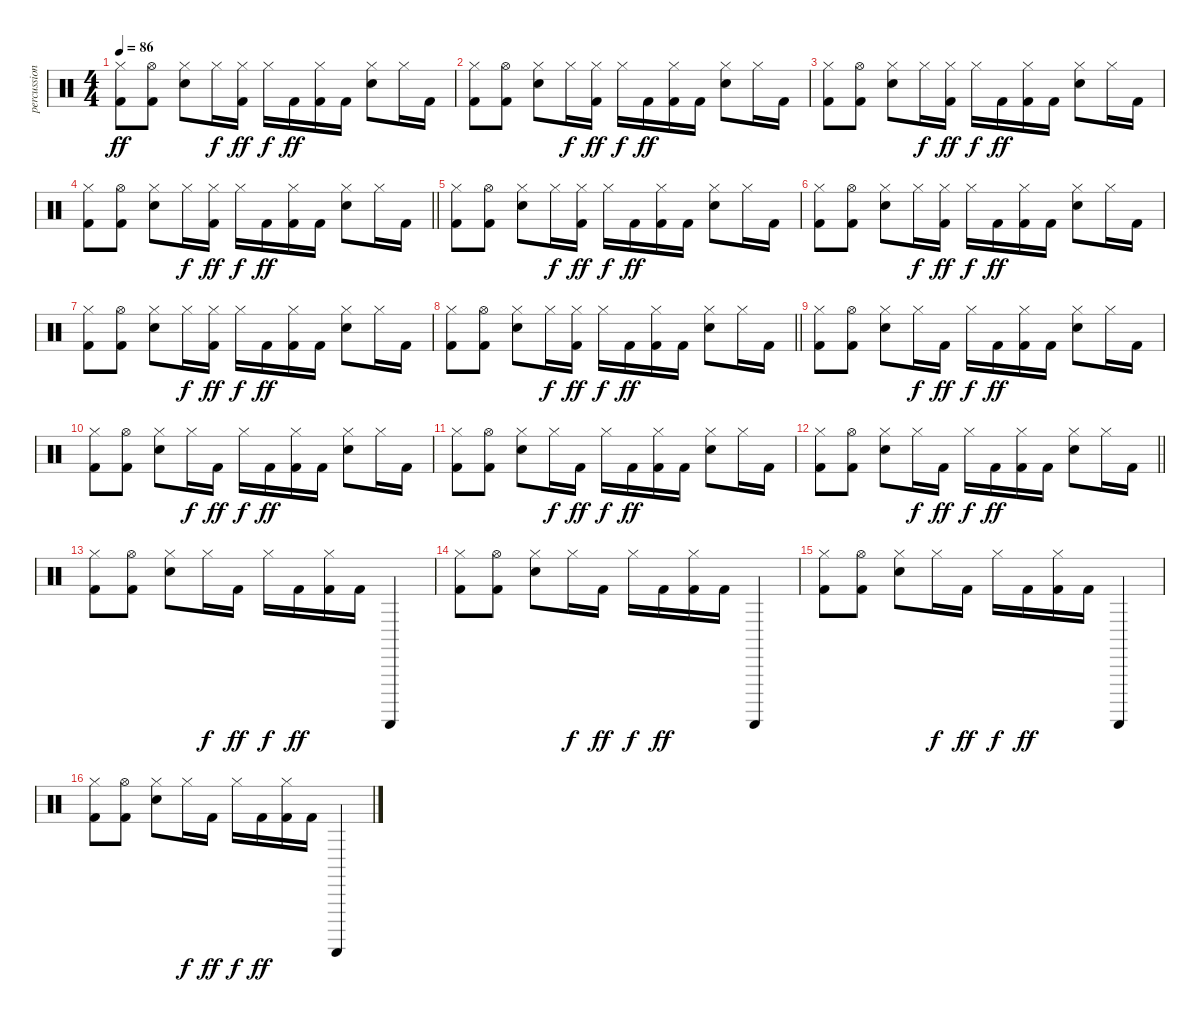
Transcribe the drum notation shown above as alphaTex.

\track ("percussion" "percussion") {instrument percussion}
\staff {score}
\articulation defaults
\ts (4 4)
\tempo 86
\clef neutral
\ks c
("Hi-Hat (closed)" "Kick (hit) 2").8{dy ff} ("Hi-Hat (open)" "Kick (hit) 2").8 ("Electric Snare (hit)" "Hi-Hat (closed)").8 "Hi-Hat (closed)".16{dy f} ("Hi-Hat (closed)" "Kick (hit) 2").16{dy ff} "Hi-Hat (closed)".16{dy f} "Kick (hit) 2".16{dy ff} ("Hi-Hat (closed)" "Kick (hit) 2").16 "Kick (hit) 2".16 ("Electric Snare (hit)" "Hi-Hat (closed)").8 "Hi-Hat (closed)".16 "Kick (hit) 2".16 |
("Hi-Hat (closed)" "Kick (hit) 2").8 ("Hi-Hat (open)" "Kick (hit) 2").8 ("Electric Snare (hit)" "Hi-Hat (closed)").8 "Hi-Hat (closed)".16{dy f} ("Hi-Hat (closed)" "Kick (hit) 2").16{dy ff} "Hi-Hat (closed)".16{dy f} "Kick (hit) 2".16{dy ff} ("Hi-Hat (closed)" "Kick (hit) 2").16 "Kick (hit) 2".16 ("Electric Snare (hit)" "Hi-Hat (closed)").8 "Hi-Hat (closed)".16 "Kick (hit) 2".16 |
("Hi-Hat (closed)" "Kick (hit) 2").8 ("Hi-Hat (open)" "Kick (hit) 2").8 ("Electric Snare (hit)" "Hi-Hat (closed)").8 "Hi-Hat (closed)".16{dy f} ("Hi-Hat (closed)" "Kick (hit) 2").16{dy ff} "Hi-Hat (closed)".16{dy f} "Kick (hit) 2".16{dy ff} ("Hi-Hat (closed)" "Kick (hit) 2").16 "Kick (hit) 2".16 ("Electric Snare (hit)" "Hi-Hat (closed)").8 "Hi-Hat (closed)".16 "Kick (hit) 2".16 |
\barLineRight lightlight
("Hi-Hat (closed)" "Kick (hit) 2").8 ("Hi-Hat (open)" "Kick (hit) 2").8 ("Electric Snare (hit)" "Hi-Hat (closed)").8 "Hi-Hat (closed)".16{dy f} ("Hi-Hat (closed)" "Kick (hit) 2").16{dy ff} "Hi-Hat (closed)".16{dy f} "Kick (hit) 2".16{dy ff} ("Hi-Hat (closed)" "Kick (hit) 2").16 "Kick (hit) 2".16 ("Electric Snare (hit)" "Hi-Hat (closed)").8 "Hi-Hat (closed)".16 "Kick (hit) 2".16 |
("Hi-Hat (closed)" "Kick (hit) 2").8 ("Hi-Hat (open)" "Kick (hit) 2").8 ("Electric Snare (hit)" "Hi-Hat (closed)").8 "Hi-Hat (closed)".16{dy f} ("Hi-Hat (closed)" "Kick (hit) 2").16{dy ff} "Hi-Hat (closed)".16{dy f} "Kick (hit) 2".16{dy ff} ("Hi-Hat (closed)" "Kick (hit) 2").16 "Kick (hit) 2".16 ("Electric Snare (hit)" "Hi-Hat (closed)").8 "Hi-Hat (closed)".16 "Kick (hit) 2".16 |
("Hi-Hat (closed)" "Kick (hit) 2").8 ("Hi-Hat (open)" "Kick (hit) 2").8 ("Electric Snare (hit)" "Hi-Hat (closed)").8 "Hi-Hat (closed)".16{dy f} ("Hi-Hat (closed)" "Kick (hit) 2").16{dy ff} "Hi-Hat (closed)".16{dy f} "Kick (hit) 2".16{dy ff} ("Hi-Hat (closed)" "Kick (hit) 2").16 "Kick (hit) 2".16 ("Electric Snare (hit)" "Hi-Hat (closed)").8 "Hi-Hat (closed)".16 "Kick (hit) 2".16 |
("Hi-Hat (closed)" "Kick (hit) 2").8 ("Hi-Hat (open)" "Kick (hit) 2").8 ("Electric Snare (hit)" "Hi-Hat (closed)").8 "Hi-Hat (closed)".16{dy f} ("Hi-Hat (closed)" "Kick (hit) 2").16{dy ff} "Hi-Hat (closed)".16{dy f} "Kick (hit) 2".16{dy ff} ("Hi-Hat (closed)" "Kick (hit) 2").16 "Kick (hit) 2".16 ("Electric Snare (hit)" "Hi-Hat (closed)").8 "Hi-Hat (closed)".16 "Kick (hit) 2".16 |
\barLineRight lightlight
("Hi-Hat (closed)" "Kick (hit) 2").8 ("Hi-Hat (open)" "Kick (hit) 2").8 ("Electric Snare (hit)" "Hi-Hat (closed)").8 "Hi-Hat (closed)".16{dy f} ("Hi-Hat (closed)" "Kick (hit) 2").16{dy ff} "Hi-Hat (closed)".16{dy f} "Kick (hit) 2".16{dy ff} ("Hi-Hat (closed)" "Kick (hit) 2").16 "Kick (hit) 2".16 ("Electric Snare (hit)" "Hi-Hat (closed)").8 "Hi-Hat (closed)".16 "Kick (hit) 2".16 |
("Hi-Hat (closed)" "Kick (hit) 2").8 ("Hi-Hat (open)" "Kick (hit) 2").8 ("Electric Snare (hit)" "Hi-Hat (closed)").8 "Hi-Hat (closed)".16{dy f} "Kick (hit) 2".16{dy ff} "Hi-Hat (closed)".16{dy f} "Kick (hit) 2".16{dy ff} ("Hi-Hat (closed)" "Kick (hit) 2").16 "Kick (hit) 2".16 ("Electric Snare (hit)" "Hi-Hat (closed)").8 "Hi-Hat (closed)".16 "Kick (hit) 2".16 |
("Hi-Hat (closed)" "Kick (hit) 2").8 ("Hi-Hat (open)" "Kick (hit) 2").8 ("Electric Snare (hit)" "Hi-Hat (closed)").8 "Hi-Hat (closed)".16{dy f} "Kick (hit) 2".16{dy ff} "Hi-Hat (closed)".16{dy f} "Kick (hit) 2".16{dy ff} ("Hi-Hat (closed)" "Kick (hit) 2").16 "Kick (hit) 2".16 ("Electric Snare (hit)" "Hi-Hat (closed)").8 "Hi-Hat (closed)".16 "Kick (hit) 2".16 |
("Hi-Hat (closed)" "Kick (hit) 2").8 ("Hi-Hat (open)" "Kick (hit) 2").8 ("Electric Snare (hit)" "Hi-Hat (closed)").8 "Hi-Hat (closed)".16{dy f} "Kick (hit) 2".16{dy ff} "Hi-Hat (closed)".16{dy f} "Kick (hit) 2".16{dy ff} ("Hi-Hat (closed)" "Kick (hit) 2").16 "Kick (hit) 2".16 ("Electric Snare (hit)" "Hi-Hat (closed)").8 "Hi-Hat (closed)".16 "Kick (hit) 2".16 |
\barLineRight lightlight
("Hi-Hat (closed)" "Kick (hit) 2").8 ("Hi-Hat (open)" "Kick (hit) 2").8 ("Electric Snare (hit)" "Hi-Hat (closed)").8 "Hi-Hat (closed)".16{dy f} "Kick (hit) 2".16{dy ff} "Hi-Hat (closed)".16{dy f} "Kick (hit) 2".16{dy ff} ("Hi-Hat (closed)" "Kick (hit) 2").16 "Kick (hit) 2".16 ("Electric Snare (hit)" "Hi-Hat (closed)").8 "Hi-Hat (closed)".16 "Kick (hit) 2".16 |
("Hi-Hat (closed)" "Kick (hit) 2").8 ("Hi-Hat (open)" "Kick (hit) 2").8 ("Electric Snare (hit)" "Hi-Hat (closed)").8 "Hi-Hat (closed)".16{dy f} "Kick (hit) 2".16{dy ff} "Hi-Hat (closed)".16{dy f} "Kick (hit) 2".16{dy ff} ("Hi-Hat (closed)" "Kick (hit) 2").16 "Kick (hit) 2".16 "Guiro (scrap-return)".4 |
("Hi-Hat (closed)" "Kick (hit) 2").8 ("Hi-Hat (open)" "Kick (hit) 2").8 ("Electric Snare (hit)" "Hi-Hat (closed)").8 "Hi-Hat (closed)".16{dy f} "Kick (hit) 2".16{dy ff} "Hi-Hat (closed)".16{dy f} "Kick (hit) 2".16{dy ff} ("Hi-Hat (closed)" "Kick (hit) 2").16 "Kick (hit) 2".16 "Guiro (scrap-return)".4 |
("Hi-Hat (closed)" "Kick (hit) 2").8 ("Hi-Hat (open)" "Kick (hit) 2").8 ("Electric Snare (hit)" "Hi-Hat (closed)").8 "Hi-Hat (closed)".16{dy f} "Kick (hit) 2".16{dy ff} "Hi-Hat (closed)".16{dy f} "Kick (hit) 2".16{dy ff} ("Hi-Hat (closed)" "Kick (hit) 2").16 "Kick (hit) 2".16 "Guiro (scrap-return)".4 |
("Hi-Hat (closed)" "Kick (hit) 2").8 ("Hi-Hat (open)" "Kick (hit) 2").8 ("Electric Snare (hit)" "Hi-Hat (closed)").8 "Hi-Hat (closed)".16{dy f} "Kick (hit) 2".16{dy ff} "Hi-Hat (closed)".16{dy f} "Kick (hit) 2".16{dy ff} ("Hi-Hat (closed)" "Kick (hit) 2").16 "Kick (hit) 2".16 "Guiro (scrap-return)".4
